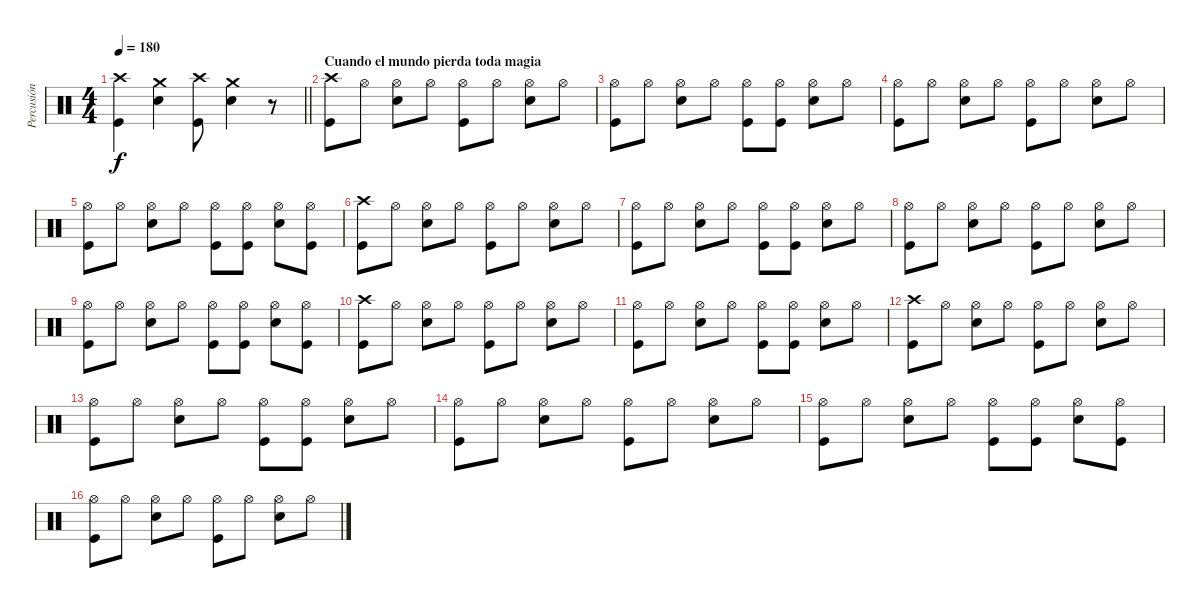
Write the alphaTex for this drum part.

\track ("Percusión" "Percusión") {instrument percussion}
\staff {score}
\articulation defaults
\ts (4 4)
\tempo 180
\clef neutral
\barLineRight lightlight
\ks c
("Crash high (hit)" "Kick (hit)").4{dy f} ("Crash medium (hit)" "Electric Snare (hit)").4 ("Crash high (hit)" "Kick (hit)").8 ("Crash medium (hit)" "Electric Snare (hit)").4 r.8 |
\section ("" "Cuando el mundo pierda toda magia")
("Crash high (hit)" "Kick (hit)").8 "Hi-Hat (open)".8 ("Hi-Hat (open)" "Electric Snare (hit)").8 "Hi-Hat (open)".8 ("Hi-Hat (open)" "Kick (hit)").8 "Hi-Hat (open)".8 ("Hi-Hat (open)" "Electric Snare (hit)").8 "Hi-Hat (open)".8 |
("Hi-Hat (open)" "Kick (hit)").8 "Hi-Hat (open)".8 ("Hi-Hat (open)" "Electric Snare (hit)").8 "Hi-Hat (open)".8 ("Hi-Hat (open)" "Kick (hit)").8 ("Hi-Hat (open)" "Kick (hit)").8 ("Hi-Hat (open)" "Electric Snare (hit)").8 "Hi-Hat (open)".8 |
("Hi-Hat (open)" "Kick (hit)").8 "Hi-Hat (open)".8 ("Hi-Hat (open)" "Electric Snare (hit)").8 "Hi-Hat (open)".8 ("Hi-Hat (open)" "Kick (hit)").8 "Hi-Hat (open)".8 ("Hi-Hat (open)" "Electric Snare (hit)").8 "Hi-Hat (open)".8 |
("Hi-Hat (open)" "Kick (hit)").8 "Hi-Hat (open)".8 ("Hi-Hat (open)" "Electric Snare (hit)").8 "Hi-Hat (open)".8 ("Hi-Hat (open)" "Kick (hit)").8 ("Hi-Hat (open)" "Kick (hit)").8 ("Hi-Hat (open)" "Electric Snare (hit)").8 ("Hi-Hat (open)" "Kick (hit)").8 |
("Crash high (hit)" "Kick (hit)").8 "Hi-Hat (open)".8 ("Hi-Hat (open)" "Electric Snare (hit)").8 "Hi-Hat (open)".8 ("Hi-Hat (open)" "Kick (hit)").8 "Hi-Hat (open)".8 ("Hi-Hat (open)" "Electric Snare (hit)").8 "Hi-Hat (open)".8 |
("Hi-Hat (open)" "Kick (hit)").8 "Hi-Hat (open)".8 ("Hi-Hat (open)" "Electric Snare (hit)").8 "Hi-Hat (open)".8 ("Hi-Hat (open)" "Kick (hit)").8 ("Hi-Hat (open)" "Kick (hit)").8 ("Hi-Hat (open)" "Electric Snare (hit)").8 "Hi-Hat (open)".8 |
("Hi-Hat (open)" "Kick (hit)").8 "Hi-Hat (open)".8 ("Hi-Hat (open)" "Electric Snare (hit)").8 "Hi-Hat (open)".8 ("Hi-Hat (open)" "Kick (hit)").8 "Hi-Hat (open)".8 ("Hi-Hat (open)" "Electric Snare (hit)").8 "Hi-Hat (open)".8 |
("Hi-Hat (open)" "Kick (hit)").8 "Hi-Hat (open)".8 ("Hi-Hat (open)" "Electric Snare (hit)").8 "Hi-Hat (open)".8 ("Hi-Hat (open)" "Kick (hit)").8 ("Hi-Hat (open)" "Kick (hit)").8 ("Hi-Hat (open)" "Electric Snare (hit)").8 ("Hi-Hat (open)" "Kick (hit)").8 |
("Crash high (hit)" "Kick (hit)").8 "Hi-Hat (open)".8 ("Hi-Hat (open)" "Electric Snare (hit)").8 "Hi-Hat (open)".8 ("Hi-Hat (open)" "Kick (hit)").8 "Hi-Hat (open)".8 ("Hi-Hat (open)" "Electric Snare (hit)").8 "Hi-Hat (open)".8 |
("Hi-Hat (open)" "Kick (hit)").8 "Hi-Hat (open)".8 ("Hi-Hat (open)" "Electric Snare (hit)").8 "Hi-Hat (open)".8 ("Hi-Hat (open)" "Kick (hit)").8 ("Hi-Hat (open)" "Kick (hit)").8 ("Hi-Hat (open)" "Electric Snare (hit)").8 "Hi-Hat (open)".8 |
("Crash high (hit)" "Kick (hit)").8 "Hi-Hat (open)".8 ("Hi-Hat (open)" "Electric Snare (hit)").8 "Hi-Hat (open)".8 ("Hi-Hat (open)" "Kick (hit)").8 "Hi-Hat (open)".8 ("Hi-Hat (open)" "Electric Snare (hit)").8 "Hi-Hat (open)".8 |
("Hi-Hat (open)" "Kick (hit)").8 "Hi-Hat (open)".8 ("Hi-Hat (open)" "Electric Snare (hit)").8 "Hi-Hat (open)".8 ("Hi-Hat (open)" "Kick (hit)").8 ("Hi-Hat (open)" "Kick (hit)").8 ("Hi-Hat (open)" "Electric Snare (hit)").8 "Hi-Hat (open)".8 |
("Hi-Hat (open)" "Kick (hit)").8 "Hi-Hat (open)".8 ("Hi-Hat (open)" "Electric Snare (hit)").8 "Hi-Hat (open)".8 ("Hi-Hat (open)" "Kick (hit)").8 "Hi-Hat (open)".8 ("Hi-Hat (open)" "Electric Snare (hit)").8 "Hi-Hat (open)".8 |
("Hi-Hat (open)" "Kick (hit)").8 "Hi-Hat (open)".8 ("Hi-Hat (open)" "Electric Snare (hit)").8 "Hi-Hat (open)".8 ("Hi-Hat (open)" "Kick (hit)").8 ("Hi-Hat (open)" "Kick (hit)").8 ("Hi-Hat (open)" "Electric Snare (hit)").8 ("Hi-Hat (open)" "Kick (hit)").8 |
("Hi-Hat (open)" "Kick (hit)").8 "Hi-Hat (open)".8 ("Hi-Hat (open)" "Electric Snare (hit)").8 "Hi-Hat (open)".8 ("Hi-Hat (open)" "Kick (hit)").8 "Hi-Hat (open)".8 ("Hi-Hat (open)" "Electric Snare (hit)").8 "Hi-Hat (open)".8
